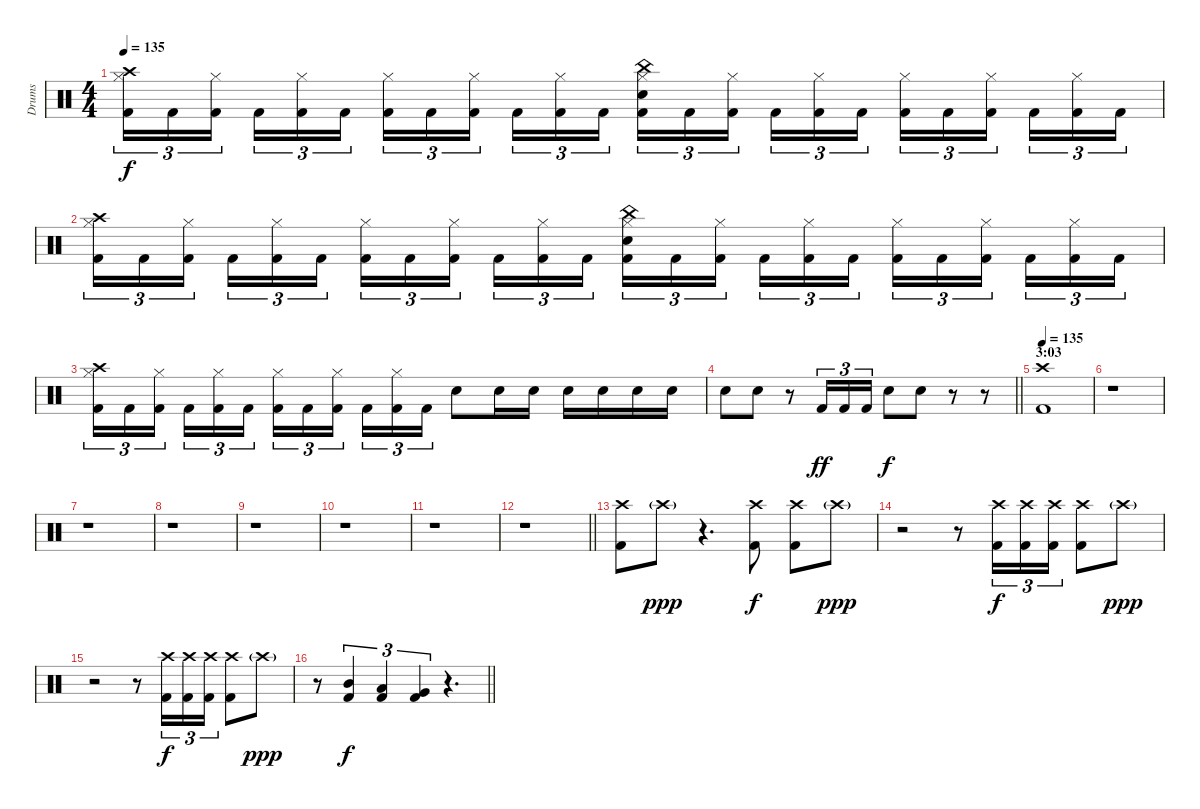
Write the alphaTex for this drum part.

\track ("Drums" "Drums") {instrument percussion}
\staff {score}
\articulation defaults
\ts (4 4)
\tempo 135
\clef neutral
\ks c
("Crash high (hit)" "Hi-Hat (closed)" "Kick (hit) 2").16{tu (3 2) dy f} "Kick (hit) 2".16{tu (3 2)} ("Hi-Hat (closed)" "Kick (hit) 2").16{tu (3 2) beam splitsecondary} "Kick (hit) 2".16{tu (3 2)} ("Hi-Hat (closed)" "Kick (hit) 2").16{tu (3 2)} "Kick (hit) 2".16{tu (3 2)} ("Hi-Hat (closed)" "Kick (hit) 2").16{tu (3 2)} "Kick (hit) 2".16{tu (3 2)} ("Hi-Hat (closed)" "Kick (hit) 2").16{tu (3 2) beam splitsecondary} "Kick (hit) 2".16{tu (3 2)} ("Hi-Hat (closed)" "Kick (hit) 2").16{tu (3 2)} "Kick (hit) 2".16{tu (3 2)} ("China (hit)" "Hi-Hat (closed)" "Electric Snare (hit)" "Kick (hit) 2").16{tu (3 2)} "Kick (hit) 2".16{tu (3 2)} ("Hi-Hat (closed)" "Kick (hit) 2").16{tu (3 2) beam splitsecondary} "Kick (hit) 2".16{tu (3 2)} ("Hi-Hat (closed)" "Kick (hit) 2").16{tu (3 2)} "Kick (hit) 2".16{tu (3 2)} ("Hi-Hat (closed)" "Kick (hit) 2").16{tu (3 2)} "Kick (hit) 2".16{tu (3 2)} ("Hi-Hat (closed)" "Kick (hit) 2").16{tu (3 2) beam splitsecondary} "Kick (hit) 2".16{tu (3 2)} ("Hi-Hat (closed)" "Kick (hit) 2").16{tu (3 2)} "Kick (hit) 2".16{tu (3 2)} |
("Crash high (hit)" "Hi-Hat (closed)" "Kick (hit) 2").16{tu (3 2)} "Kick (hit) 2".16{tu (3 2)} ("Hi-Hat (closed)" "Kick (hit) 2").16{tu (3 2) beam splitsecondary} "Kick (hit) 2".16{tu (3 2)} ("Hi-Hat (closed)" "Kick (hit) 2").16{tu (3 2)} "Kick (hit) 2".16{tu (3 2)} ("Hi-Hat (closed)" "Kick (hit) 2").16{tu (3 2)} "Kick (hit) 2".16{tu (3 2)} ("Hi-Hat (closed)" "Kick (hit) 2").16{tu (3 2) beam splitsecondary} "Kick (hit) 2".16{tu (3 2)} ("Hi-Hat (closed)" "Kick (hit) 2").16{tu (3 2)} "Kick (hit) 2".16{tu (3 2)} ("China (hit)" "Hi-Hat (closed)" "Electric Snare (hit)" "Kick (hit) 2").16{tu (3 2)} "Kick (hit) 2".16{tu (3 2)} ("Hi-Hat (closed)" "Kick (hit) 2").16{tu (3 2) beam splitsecondary} "Kick (hit) 2".16{tu (3 2)} ("Hi-Hat (closed)" "Kick (hit) 2").16{tu (3 2)} "Kick (hit) 2".16{tu (3 2)} ("Hi-Hat (closed)" "Kick (hit) 2").16{tu (3 2)} "Kick (hit) 2".16{tu (3 2)} ("Hi-Hat (closed)" "Kick (hit) 2").16{tu (3 2) beam splitsecondary} "Kick (hit) 2".16{tu (3 2)} ("Hi-Hat (closed)" "Kick (hit) 2").16{tu (3 2)} "Kick (hit) 2".16{tu (3 2)} |
("Crash high (hit)" "Hi-Hat (closed)" "Kick (hit) 2").16{tu (3 2)} "Kick (hit) 2".16{tu (3 2)} ("Hi-Hat (closed)" "Kick (hit) 2").16{tu (3 2) beam splitsecondary} "Kick (hit) 2".16{tu (3 2)} ("Hi-Hat (closed)" "Kick (hit) 2").16{tu (3 2)} "Kick (hit) 2".16{tu (3 2)} ("Hi-Hat (closed)" "Kick (hit) 2").16{tu (3 2)} "Kick (hit) 2".16{tu (3 2)} ("Hi-Hat (closed)" "Kick (hit) 2").16{tu (3 2) beam splitsecondary} "Kick (hit) 2".16{tu (3 2)} ("Hi-Hat (closed)" "Kick (hit) 2").16{tu (3 2)} "Kick (hit) 2".16{tu (3 2)} "Electric Snare (hit)".8 "Electric Snare (hit)".16 "Electric Snare (hit)".16 "Electric Snare (hit)".16 "Electric Snare (hit)".16 "Electric Snare (hit)".16 "Electric Snare (hit)".16 |
\barLineRight lightlight "Electric Snare (hit)".8 "Electric Snare (hit)".8
r.8 "Kick (hit) 2".16{tu (3 2) dy ff} "Kick (hit) 2".16{tu (3 2)} "Kick (hit) 2".16{tu (3 2)} "Electric Snare (hit)".8{dy f} "Electric Snare (hit)".8 r.8 r.8 |
\section ("" "3:03")
\tempo 135
("Crash high (hit)" "Kick (hit) 2").1 |
r.1 |
r.1 |
r.1 |
r.1 |
r.1 |
r.1 |
\barLineRight lightlight
r.1 |
("Crash high (hit)" "Kick (hit) 2").8 "Crash high (hit)"{g}.8{dy ppp} r.4{d} ("Crash high (hit)" "Kick (hit) 2").8{dy f} ("Crash high (hit)" "Kick (hit) 2").8 "Crash high (hit)"{g}.8{dy ppp} |
r.2 r.8 ("Crash high (hit)" "Kick (hit) 2").16{tu (3 2) dy f} ("Crash high (hit)" "Kick (hit) 2").16{tu (3 2)} ("Crash high (hit)" "Kick (hit) 2").16{tu (3 2)} ("Crash high (hit)" "Kick (hit) 2").8 "Crash high (hit)"{g}.8{dy ppp} |
r.2 r.8 ("Crash high (hit)" "Kick (hit) 2").16{tu (3 2) dy f} ("Crash high (hit)" "Kick (hit) 2").16{tu (3 2)} ("Crash high (hit)" "Kick (hit) 2").16{tu (3 2)} ("Crash high (hit)" "Kick (hit) 2").8 "Crash high (hit)"{g}.8{dy ppp} |
\barLineRight lightlight
r.8 ("Mid Tom (hit)" "Kick (hit) 2").4{tu (3 2) dy f} ("Low Tom (hit)" "Kick (hit) 2").4{tu (3 2)} ("Very Low Tom (hit)" "Kick (hit) 2").4{tu (3 2)} r.4{d}
